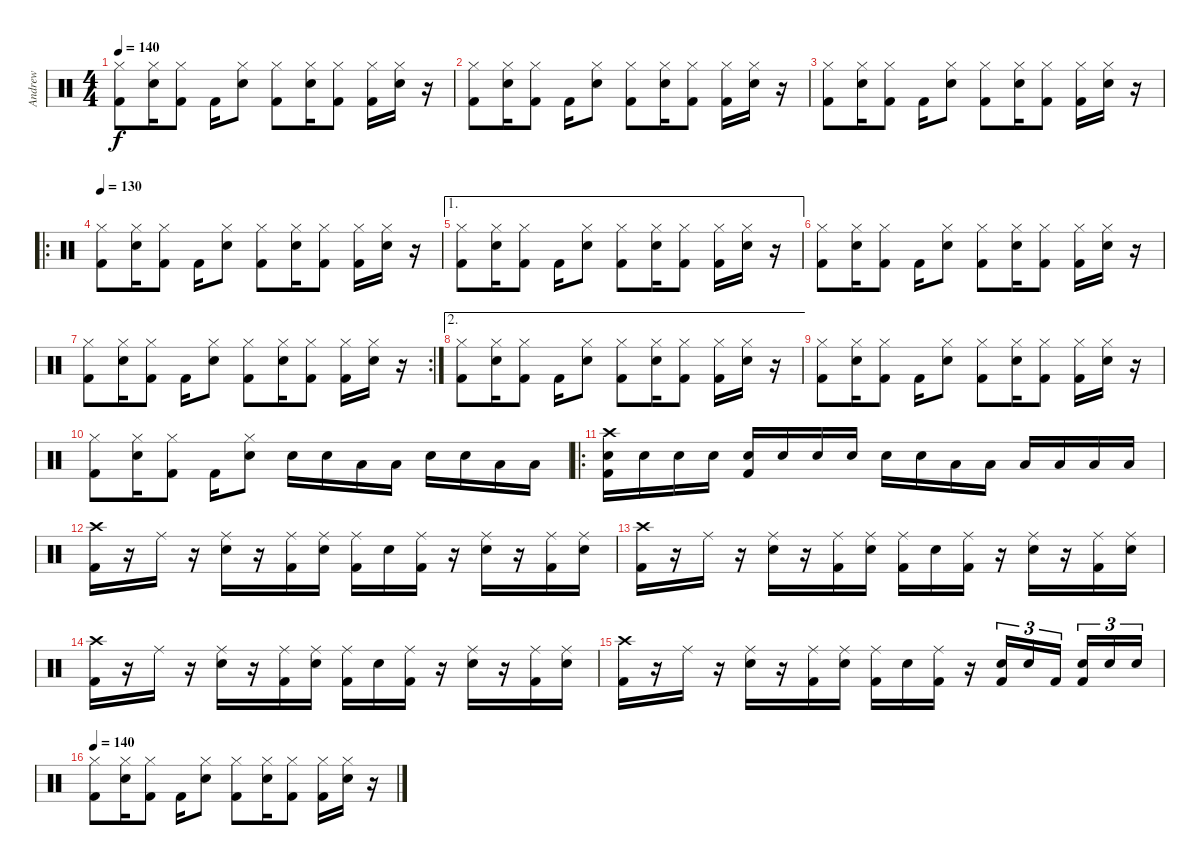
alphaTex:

\track ("Andrew" "Andrew") {instrument percussion}
\staff {score}
\articulation defaults
\ts (4 4)
\tempo 140
\clef neutral
\ks c
("Hi-Hat (closed)" "Kick (hit) 2").8{dy f} ("Hi-Hat (closed)" "Snare (hit) 2").16 ("Hi-Hat (closed)" "Kick (hit) 2").8 "Kick (hit) 2".16 ("Hi-Hat (closed)" "Snare (hit) 2").8 ("Hi-Hat (closed)" "Kick (hit) 2").8 ("Hi-Hat (closed)" "Snare (hit) 2").16 ("Hi-Hat (closed)" "Kick (hit) 2").8 ("Hi-Hat (closed)" "Kick (hit) 2").16 ("Hi-Hat (closed)" "Snare (hit) 2").16 r.16 |
("Hi-Hat (closed)" "Kick (hit) 2").8 ("Hi-Hat (closed)" "Snare (hit) 2").16 ("Hi-Hat (closed)" "Kick (hit) 2").8 "Kick (hit) 2".16 ("Hi-Hat (closed)" "Snare (hit) 2").8 ("Hi-Hat (closed)" "Kick (hit) 2").8 ("Hi-Hat (closed)" "Snare (hit) 2").16 ("Hi-Hat (closed)" "Kick (hit) 2").8 ("Hi-Hat (closed)" "Kick (hit) 2").16 ("Hi-Hat (closed)" "Snare (hit) 2").16 r.16 |
("Hi-Hat (closed)" "Kick (hit) 2").8 ("Hi-Hat (closed)" "Snare (hit) 2").16 ("Hi-Hat (closed)" "Kick (hit) 2").8 "Kick (hit) 2".16 ("Hi-Hat (closed)" "Snare (hit) 2").8 ("Hi-Hat (closed)" "Kick (hit) 2").8 ("Hi-Hat (closed)" "Snare (hit) 2").16 ("Hi-Hat (closed)" "Kick (hit) 2").8 ("Hi-Hat (closed)" "Kick (hit) 2").16 ("Hi-Hat (closed)" "Snare (hit) 2").16 r.16 |
\ro
\tempo 130
("Hi-Hat (closed)" "Kick (hit) 2").8 ("Hi-Hat (closed)" "Snare (hit) 2").16 ("Hi-Hat (closed)" "Kick (hit) 2").8 "Kick (hit) 2".16 ("Hi-Hat (closed)" "Snare (hit) 2").8 ("Hi-Hat (closed)" "Kick (hit) 2").8 ("Hi-Hat (closed)" "Snare (hit) 2").16 ("Hi-Hat (closed)" "Kick (hit) 2").8 ("Hi-Hat (closed)" "Kick (hit) 2").16 ("Hi-Hat (closed)" "Snare (hit) 2").16 r.16 |
\ae 1
("Hi-Hat (closed)" "Kick (hit) 2").8 ("Hi-Hat (closed)" "Snare (hit) 2").16 ("Hi-Hat (closed)" "Kick (hit) 2").8 "Kick (hit) 2".16 ("Hi-Hat (closed)" "Snare (hit) 2").8 ("Hi-Hat (closed)" "Kick (hit) 2").8 ("Hi-Hat (closed)" "Snare (hit) 2").16 ("Hi-Hat (closed)" "Kick (hit) 2").8 ("Hi-Hat (closed)" "Kick (hit) 2").16 ("Hi-Hat (closed)" "Snare (hit) 2").16 r.16 |
("Hi-Hat (closed)" "Kick (hit) 2").8 ("Hi-Hat (closed)" "Snare (hit) 2").16 ("Hi-Hat (closed)" "Kick (hit) 2").8 "Kick (hit) 2".16 ("Hi-Hat (closed)" "Snare (hit) 2").8 ("Hi-Hat (closed)" "Kick (hit) 2").8 ("Hi-Hat (closed)" "Snare (hit) 2").16 ("Hi-Hat (closed)" "Kick (hit) 2").8 ("Hi-Hat (closed)" "Kick (hit) 2").16 ("Hi-Hat (closed)" "Snare (hit) 2").16 r.16 |
\rc 2
("Hi-Hat (closed)" "Kick (hit) 2").8 ("Hi-Hat (closed)" "Snare (hit) 2").16 ("Hi-Hat (closed)" "Kick (hit) 2").8 "Kick (hit) 2".16 ("Hi-Hat (closed)" "Snare (hit) 2").8 ("Hi-Hat (closed)" "Kick (hit) 2").8 ("Hi-Hat (closed)" "Snare (hit) 2").16 ("Hi-Hat (closed)" "Kick (hit) 2").8 ("Hi-Hat (closed)" "Kick (hit) 2").16 ("Hi-Hat (closed)" "Snare (hit) 2").16 r.16 |
\ae 2
("Hi-Hat (closed)" "Kick (hit) 2").8 ("Hi-Hat (closed)" "Snare (hit) 2").16 ("Hi-Hat (closed)" "Kick (hit) 2").8 "Kick (hit) 2".16 ("Hi-Hat (closed)" "Snare (hit) 2").8 ("Hi-Hat (closed)" "Kick (hit) 2").8 ("Hi-Hat (closed)" "Snare (hit) 2").16 ("Hi-Hat (closed)" "Kick (hit) 2").8 ("Hi-Hat (closed)" "Kick (hit) 2").16 ("Hi-Hat (closed)" "Snare (hit) 2").16 r.16 |
("Hi-Hat (closed)" "Kick (hit) 2").8 ("Hi-Hat (closed)" "Snare (hit) 2").16 ("Hi-Hat (closed)" "Kick (hit) 2").8 "Kick (hit) 2".16 ("Hi-Hat (closed)" "Snare (hit) 2").8 ("Hi-Hat (closed)" "Kick (hit) 2").8 ("Hi-Hat (closed)" "Snare (hit) 2").16 ("Hi-Hat (closed)" "Kick (hit) 2").8 ("Hi-Hat (closed)" "Kick (hit) 2").16 ("Hi-Hat (closed)" "Snare (hit) 2").16 r.16 |
("Hi-Hat (closed)" "Kick (hit) 2").8 ("Hi-Hat (closed)" "Snare (hit) 2").16 ("Hi-Hat (closed)" "Kick (hit) 2").8 "Kick (hit) 2".16 ("Hi-Hat (closed)" "Snare (hit) 2").8 "Snare (hit) 2".16 "Snare (hit) 2".16 "Low Tom (hit)".16 "Low Tom (hit)".16 "Snare (hit) 2".16 "Snare (hit) 2".16 "Low Tom (hit)".16 "Low Tom (hit)".16 |
\ro
("Snare (hit) 2" "Kick (hit) 2" "Crash high (hit)").16 "Snare (hit) 2".16 "Snare (hit) 2".16 "Snare (hit) 2".16 ("Snare (hit) 2" "Kick (hit) 2").16 "Snare (hit) 2".16 "Snare (hit) 2".16 "Snare (hit) 2".16 "Snare (hit) 2".16 "Snare (hit) 2".16 "Low Tom (hit)".16 "Low Tom (hit)".16 "Low Tom (hit)".16 "Low Tom (hit)".16 "Low Floor Tom (hit)".16 "Low Floor Tom (hit)".16 |
("Kick (hit) 2" "Crash high (hit)").16 r.16 "Ride (middle)".16 r.16 ("Ride (middle)" "Snare (hit) 2").16 r.16 ("Ride (middle)" "Kick (hit) 2").16 ("Ride (middle)" "Snare (hit) 2").16 ("Ride (middle)" "Kick (hit) 2").16 "Snare (hit) 2".16 ("Ride (middle)" "Kick (hit) 2").16 r.16 ("Ride (middle)" "Snare (hit) 2").16 r.16 ("Ride (middle)" "Kick (hit) 2").16 ("Ride (middle)" "Snare (hit) 2").16 |
("Kick (hit) 2" "Crash high (hit)").16 r.16 "Ride (middle)".16 r.16 ("Ride (middle)" "Snare (hit) 2").16 r.16 ("Ride (middle)" "Kick (hit) 2").16 ("Ride (middle)" "Snare (hit) 2").16 ("Ride (middle)" "Kick (hit) 2").16 "Snare (hit) 2".16 ("Ride (middle)" "Kick (hit) 2").16 r.16 ("Ride (middle)" "Snare (hit) 2").16 r.16 ("Ride (middle)" "Kick (hit) 2").16 ("Ride (middle)" "Snare (hit) 2").16 |
("Kick (hit) 2" "Crash high (hit)").16 r.16 "Ride (middle)".16 r.16 ("Ride (middle)" "Snare (hit) 2").16 r.16 ("Ride (middle)" "Kick (hit) 2").16 ("Ride (middle)" "Snare (hit) 2").16 ("Ride (middle)" "Kick (hit) 2").16 "Snare (hit) 2".16 ("Ride (middle)" "Kick (hit) 2").16 r.16 ("Ride (middle)" "Snare (hit) 2").16 r.16 ("Ride (middle)" "Kick (hit) 2").16 ("Ride (middle)" "Snare (hit) 2").16 |
("Kick (hit) 2" "Crash high (hit)").16 r.16 "Ride (middle)".16 r.16 ("Ride (middle)" "Snare (hit) 2").16 r.16 ("Ride (middle)" "Kick (hit) 2").16 ("Ride (middle)" "Snare (hit) 2").16 ("Ride (middle)" "Kick (hit) 2").16 "Snare (hit) 2".16 ("Ride (middle)" "Kick (hit) 2").16 r.16 ("Snare (hit) 2" "Kick (hit) 2").16{tu (3 2)} "Snare (hit) 2".16{tu (3 2)} "Kick (hit) 2".16{tu (3 2)} ("Snare (hit) 2" "Kick (hit) 2").16{tu (3 2)} "Snare (hit) 2".16{tu (3 2)} "Snare (hit) 2".16{tu (3 2)} |
\tempo 140
("Hi-Hat (closed)" "Kick (hit) 2").8 ("Hi-Hat (closed)" "Snare (hit) 2").16 ("Hi-Hat (closed)" "Kick (hit) 2").8 "Kick (hit) 2".16 ("Hi-Hat (closed)" "Snare (hit) 2").8 ("Hi-Hat (closed)" "Kick (hit) 2").8 ("Hi-Hat (closed)" "Snare (hit) 2").16 ("Hi-Hat (closed)" "Kick (hit) 2").8 ("Hi-Hat (closed)" "Kick (hit) 2").16 ("Hi-Hat (closed)" "Snare (hit) 2").16 r.16
